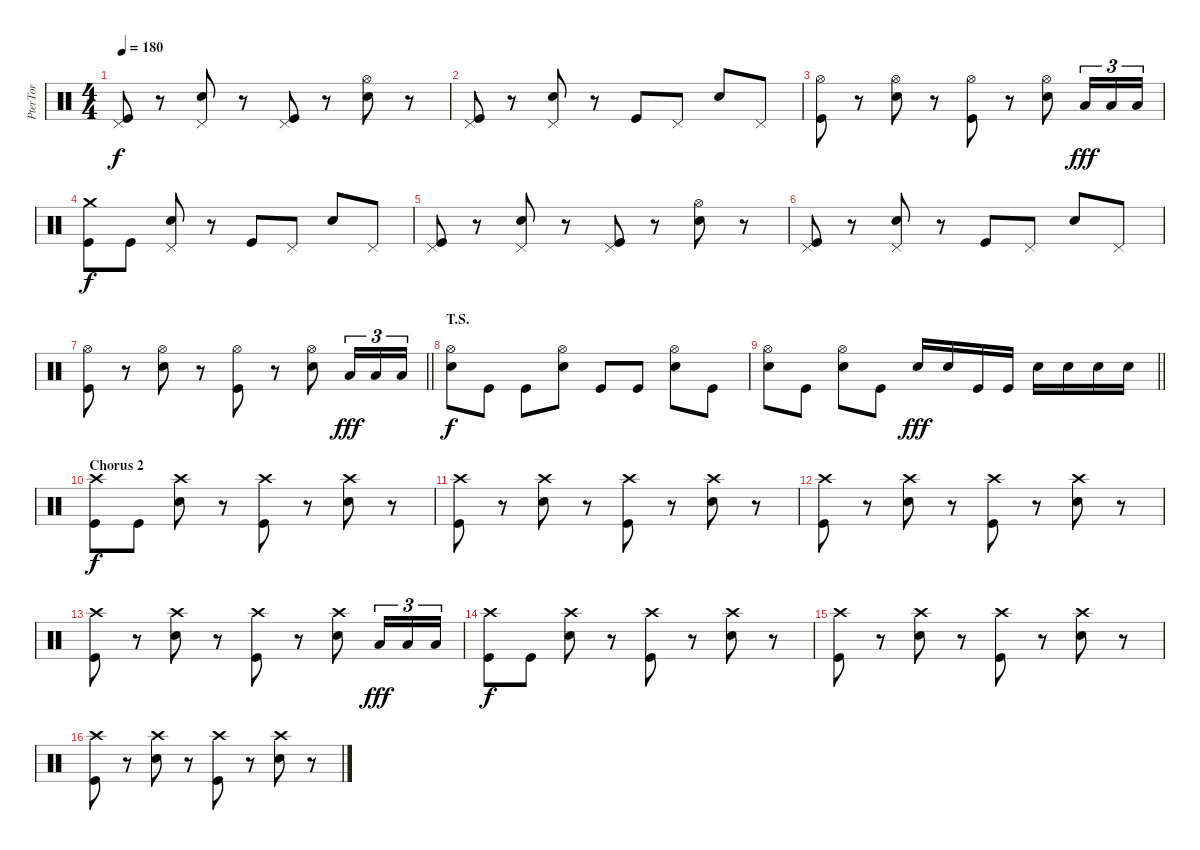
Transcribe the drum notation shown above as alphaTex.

\track ("PterTor" "PterTor") {instrument percussion}
\staff {score}
\articulation defaults
\ts (4 4)
\tempo 180
\clef neutral
\ks c
("Pedal Hi-Hat (hit)" "Kick (hit)").8{dy f} r.8 ("Pedal Hi-Hat (hit)" "Electric Snare (hit)").8 r.8 ("Pedal Hi-Hat (hit)" "Kick (hit)").8 r.8 ("Hi-Hat (open)" "Electric Snare (hit)").8 r.8 |
("Pedal Hi-Hat (hit)" "Kick (hit)").8 r.8 ("Pedal Hi-Hat (hit)" "Electric Snare (hit)").8 r.8 "Kick (hit)".8 "Pedal Hi-Hat (hit)".8 "Electric Snare (hit)".8 "Pedal Hi-Hat (hit)".8 |
("Hi-Hat (open)" "Kick (hit)").8 r.8 ("Hi-Hat (open)" "Electric Snare (hit)").8 r.8 ("Hi-Hat (open)" "Kick (hit)").8 r.8 ("Hi-Hat (open)" "Electric Snare (hit)").8 "Low Floor Tom (hit)".16{tu (3 2) dy fff} "Low Floor Tom (hit)".16{tu (3 2)} "Low Floor Tom (hit)".16{tu (3 2)} |
("Crash medium (hit)" "Kick (hit)").8{dy f} "Kick (hit)".8 ("Pedal Hi-Hat (hit)" "Electric Snare (hit)").8 r.8 "Kick (hit)".8 "Pedal Hi-Hat (hit)".8 "Electric Snare (hit)".8 "Pedal Hi-Hat (hit)".8 |
("Pedal Hi-Hat (hit)" "Kick (hit)").8 r.8 ("Pedal Hi-Hat (hit)" "Electric Snare (hit)").8 r.8 ("Pedal Hi-Hat (hit)" "Kick (hit)").8 r.8 ("Hi-Hat (open)" "Electric Snare (hit)").8 r.8 |
("Pedal Hi-Hat (hit)" "Kick (hit)").8 r.8 ("Pedal Hi-Hat (hit)" "Electric Snare (hit)").8 r.8 "Kick (hit)".8 "Pedal Hi-Hat (hit)".8 "Electric Snare (hit)".8 "Pedal Hi-Hat (hit)".8 |
\barLineRight lightlight
("Hi-Hat (open)" "Kick (hit)").8 r.8 ("Hi-Hat (open)" "Electric Snare (hit)").8 r.8 ("Hi-Hat (open)" "Kick (hit)").8 r.8 ("Hi-Hat (open)" "Electric Snare (hit)").8 "Low Floor Tom (hit)".16{tu (3 2) dy fff} "Low Floor Tom (hit)".16{tu (3 2)} "Low Floor Tom (hit)".16{tu (3 2)} |
\section ("" "T.S.")
("Hi-Hat (open)" "Electric Snare (hit)").8{dy f} "Kick (hit)".8 "Kick (hit)".8 ("Hi-Hat (open)" "Electric Snare (hit)").8 "Kick (hit)".8 "Kick (hit)".8 ("Hi-Hat (open)" "Electric Snare (hit)").8 "Kick (hit)".8 |
\barLineRight lightlight
("Hi-Hat (open)" "Electric Snare (hit)").8 "Kick (hit)".8 ("Hi-Hat (open)" "Electric Snare (hit)").8 "Kick (hit)".8 "Electric Snare (hit)".16{dy fff} "Electric Snare (hit)".16 "Kick (hit)".16 "Kick (hit)".16 "Electric Snare (hit)".16 "Electric Snare (hit)".16 "Electric Snare (hit)".16 "Electric Snare (hit)".16 |
\section ("" "Chorus 2")
("Crash high (hit)" "Kick (hit)").8{dy f} "Kick (hit)".8 ("Crash high (hit)" "Electric Snare (hit)").8 r.8 ("Crash high (hit)" "Kick (hit)").8 r.8 ("Crash high (hit)" "Electric Snare (hit)").8 r.8 |
("Crash high (hit)" "Kick (hit)").8 r.8 ("Crash high (hit)" "Electric Snare (hit)").8 r.8 ("Crash high (hit)" "Kick (hit)").8 r.8 ("Crash high (hit)" "Electric Snare (hit)").8 r.8 |
("Crash high (hit)" "Kick (hit)").8 r.8 ("Crash high (hit)" "Electric Snare (hit)").8 r.8 ("Crash high (hit)" "Kick (hit)").8 r.8 ("Crash high (hit)" "Electric Snare (hit)").8 r.8 |
("Crash high (hit)" "Kick (hit)").8 r.8 ("Crash high (hit)" "Electric Snare (hit)").8 r.8 ("Crash high (hit)" "Kick (hit)").8 r.8 ("Crash high (hit)" "Electric Snare (hit)").8 "Low Floor Tom (hit)".16{tu (3 2) dy fff} "Low Floor Tom (hit)".16{tu (3 2)} "Low Floor Tom (hit)".16{tu (3 2)} |
("Crash high (hit)" "Kick (hit)").8{dy f} "Kick (hit)".8 ("Crash high (hit)" "Electric Snare (hit)").8 r.8 ("Crash high (hit)" "Kick (hit)").8 r.8 ("Crash high (hit)" "Electric Snare (hit)").8 r.8 |
("Crash high (hit)" "Kick (hit)").8 r.8 ("Crash high (hit)" "Electric Snare (hit)").8 r.8 ("Crash high (hit)" "Kick (hit)").8 r.8 ("Crash high (hit)" "Electric Snare (hit)").8 r.8 |
("Crash high (hit)" "Kick (hit)").8 r.8 ("Crash high (hit)" "Electric Snare (hit)").8 r.8 ("Crash high (hit)" "Kick (hit)").8 r.8 ("Crash high (hit)" "Electric Snare (hit)").8 r.8
